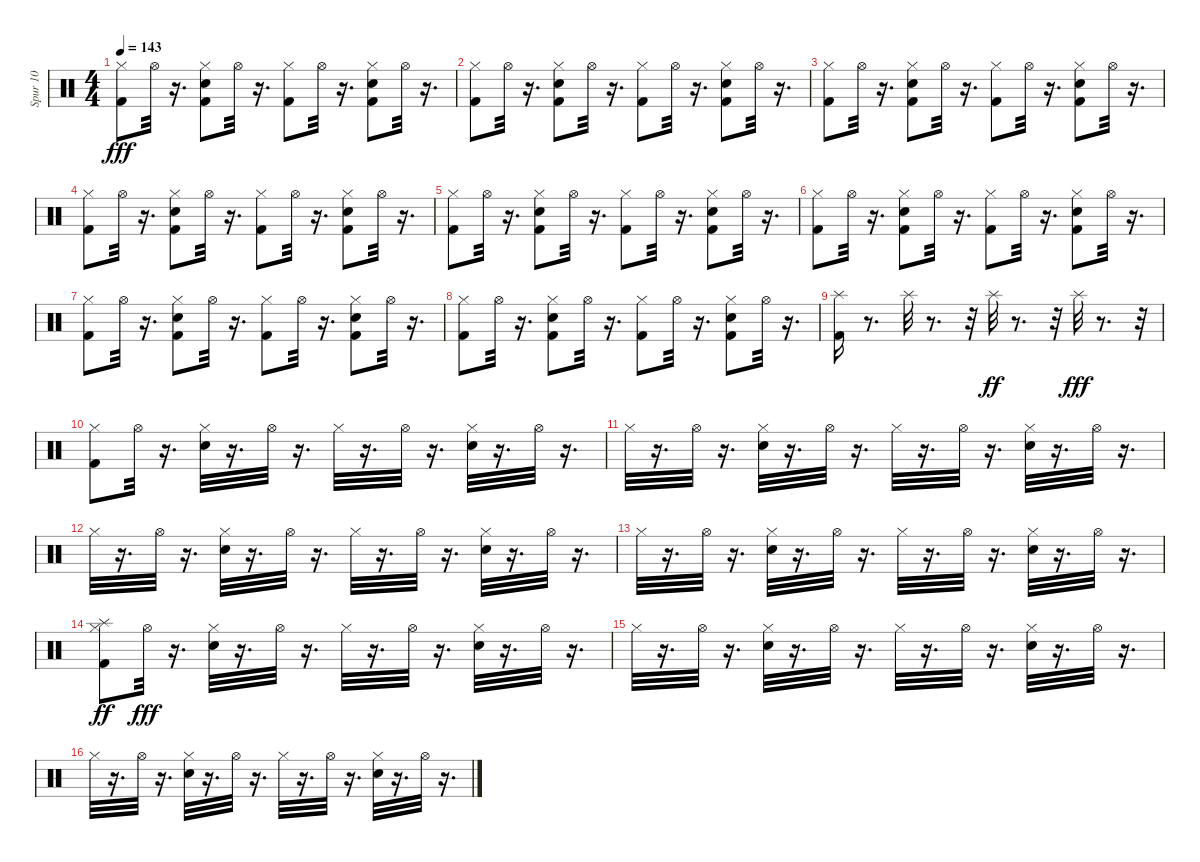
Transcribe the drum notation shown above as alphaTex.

\track ("Spur 10" "Spur 10") {instrument percussion}
\staff {score}
\articulation defaults
\ts (4 4)
\tempo 143
\clef neutral
\ks c
("Hi-Hat (closed)" "Kick (hit) 2").8{dy fff} "Hi-Hat (open)".32 r.16{d} ("Hi-Hat (closed)" "Electric Snare (hit)" "Kick (hit) 2").8 "Hi-Hat (open)".32 r.16{d} ("Hi-Hat (closed)" "Kick (hit) 2").8 "Hi-Hat (open)".32 r.16{d} ("Hi-Hat (closed)" "Electric Snare (hit)" "Kick (hit) 2").8 "Hi-Hat (open)".32 r.16{d} |
("Hi-Hat (closed)" "Kick (hit) 2").8 "Hi-Hat (open)".32 r.16{d} ("Hi-Hat (closed)" "Electric Snare (hit)" "Kick (hit) 2").8 "Hi-Hat (open)".32 r.16{d} ("Hi-Hat (closed)" "Kick (hit) 2").8 "Hi-Hat (open)".32 r.16{d} ("Hi-Hat (closed)" "Electric Snare (hit)" "Kick (hit) 2").8 "Hi-Hat (open)".32 r.16{d} |
("Hi-Hat (closed)" "Kick (hit) 2").8 "Hi-Hat (open)".32 r.16{d} ("Hi-Hat (closed)" "Electric Snare (hit)" "Kick (hit) 2").8 "Hi-Hat (open)".32 r.16{d} ("Hi-Hat (closed)" "Kick (hit) 2").8 "Hi-Hat (open)".32 r.16{d} ("Hi-Hat (closed)" "Electric Snare (hit)" "Kick (hit) 2").8 "Hi-Hat (open)".32 r.16{d} |
("Hi-Hat (closed)" "Kick (hit) 2").8 "Hi-Hat (open)".32 r.16{d} ("Hi-Hat (closed)" "Electric Snare (hit)" "Kick (hit) 2").8 "Hi-Hat (open)".32 r.16{d} ("Hi-Hat (closed)" "Kick (hit) 2").8 "Hi-Hat (open)".32 r.16{d} ("Hi-Hat (closed)" "Electric Snare (hit)" "Kick (hit) 2").8 "Hi-Hat (open)".32 r.16{d} |
("Hi-Hat (closed)" "Kick (hit) 2").8 "Hi-Hat (open)".32 r.16{d} ("Hi-Hat (closed)" "Electric Snare (hit)" "Kick (hit) 2").8 "Hi-Hat (open)".32 r.16{d} ("Hi-Hat (closed)" "Kick (hit) 2").8 "Hi-Hat (open)".32 r.16{d} ("Hi-Hat (closed)" "Electric Snare (hit)" "Kick (hit) 2").8 "Hi-Hat (open)".32 r.16{d} |
("Hi-Hat (closed)" "Kick (hit) 2").8 "Hi-Hat (open)".32 r.16{d} ("Hi-Hat (closed)" "Electric Snare (hit)" "Kick (hit) 2").8 "Hi-Hat (open)".32 r.16{d} ("Hi-Hat (closed)" "Kick (hit) 2").8 "Hi-Hat (open)".32 r.16{d} ("Hi-Hat (closed)" "Electric Snare (hit)" "Kick (hit) 2").8 "Hi-Hat (open)".32 r.16{d} |
("Hi-Hat (closed)" "Kick (hit) 2").8 "Hi-Hat (open)".32 r.16{d} ("Hi-Hat (closed)" "Electric Snare (hit)" "Kick (hit) 2").8 "Hi-Hat (open)".32 r.16{d} ("Hi-Hat (closed)" "Kick (hit) 2").8 "Hi-Hat (open)".32 r.16{d} ("Hi-Hat (closed)" "Electric Snare (hit)" "Kick (hit) 2").8 "Hi-Hat (open)".32 r.16{d} |
("Hi-Hat (closed)" "Kick (hit) 2").8 "Hi-Hat (open)".32 r.16{d} ("Hi-Hat (closed)" "Electric Snare (hit)" "Kick (hit) 2").8 "Hi-Hat (open)".32 r.16{d} ("Hi-Hat (closed)" "Kick (hit) 2").8 "Hi-Hat (open)".32 r.16{d} ("Hi-Hat (closed)" "Electric Snare (hit)" "Kick (hit) 2").8 "Hi-Hat (open)".32 r.16{d} |
("Splash (hit)" "Kick (hit) 2").16 r.8{d} "Splash (hit)".32 r.8{d} r.32 "Splash (hit)".32{dy ff} r.8{d} r.32 "Splash (hit)".32{dy fff} r.8{d} r.32 |
("Hi-Hat (closed)" "Kick (hit) 2").8 "Hi-Hat (open)".32 r.16{d} ("Hi-Hat (closed)" "Hand Clap (hit)").32 r.16{d} "Hi-Hat (open)".32 r.16{d} "Hi-Hat (closed)".32 r.16{d} "Hi-Hat (open)".32 r.16{d} ("Hi-Hat (closed)" "Hand Clap (hit)").32 r.16{d} "Hi-Hat (open)".32 r.16{d} |
"Hi-Hat (closed)".32 r.16{d} "Hi-Hat (open)".32 r.16{d} ("Hi-Hat (closed)" "Hand Clap (hit)").32 r.16{d} "Hi-Hat (open)".32 r.16{d} "Hi-Hat (closed)".32 r.16{d} "Hi-Hat (open)".32 r.16{d} ("Hi-Hat (closed)" "Hand Clap (hit)").32 r.16{d} "Hi-Hat (open)".32 r.16{d} |
"Hi-Hat (closed)".32 r.16{d} "Hi-Hat (open)".32 r.16{d} ("Hi-Hat (closed)" "Hand Clap (hit)").32 r.16{d} "Hi-Hat (open)".32 r.16{d} "Hi-Hat (closed)".32 r.16{d} "Hi-Hat (open)".32 r.16{d} ("Hi-Hat (closed)" "Hand Clap (hit)").32 r.16{d} "Hi-Hat (open)".32 r.16{d} |
"Hi-Hat (closed)".32 r.16{d} "Hi-Hat (open)".32 r.16{d} ("Hi-Hat (closed)" "Hand Clap (hit)").32 r.16{d} "Hi-Hat (open)".32 r.16{d} "Hi-Hat (closed)".32 r.16{d} "Hi-Hat (open)".32 r.16{d} ("Hi-Hat (closed)" "Hand Clap (hit)").32 r.16{d} "Hi-Hat (open)".32 r.16{d} |
("Hi-Hat (closed)" "Splash (hit)" "Kick (hit) 2").8{dy ff} "Hi-Hat (open)".32{dy fff} r.16{d} ("Hi-Hat (closed)" "Hand Clap (hit)").32 r.16{d} "Hi-Hat (open)".32 r.16{d} "Hi-Hat (closed)".32 r.16{d} "Hi-Hat (open)".32 r.16{d} ("Hi-Hat (closed)" "Hand Clap (hit)").32 r.16{d} "Hi-Hat (open)".32 r.16{d} |
"Hi-Hat (closed)".32 r.16{d} "Hi-Hat (open)".32 r.16{d} ("Hi-Hat (closed)" "Hand Clap (hit)").32 r.16{d} "Hi-Hat (open)".32 r.16{d} "Hi-Hat (closed)".32 r.16{d} "Hi-Hat (open)".32 r.16{d} ("Hi-Hat (closed)" "Hand Clap (hit)").32 r.16{d} "Hi-Hat (open)".32 r.16{d} |
"Hi-Hat (closed)".32 r.16{d} "Hi-Hat (open)".32 r.16{d} ("Hi-Hat (closed)" "Hand Clap (hit)").32 r.16{d} "Hi-Hat (open)".32 r.16{d} "Hi-Hat (closed)".32 r.16{d} "Hi-Hat (open)".32 r.16{d} ("Hi-Hat (closed)" "Hand Clap (hit)").32 r.16{d} "Hi-Hat (open)".32 r.16{d}
